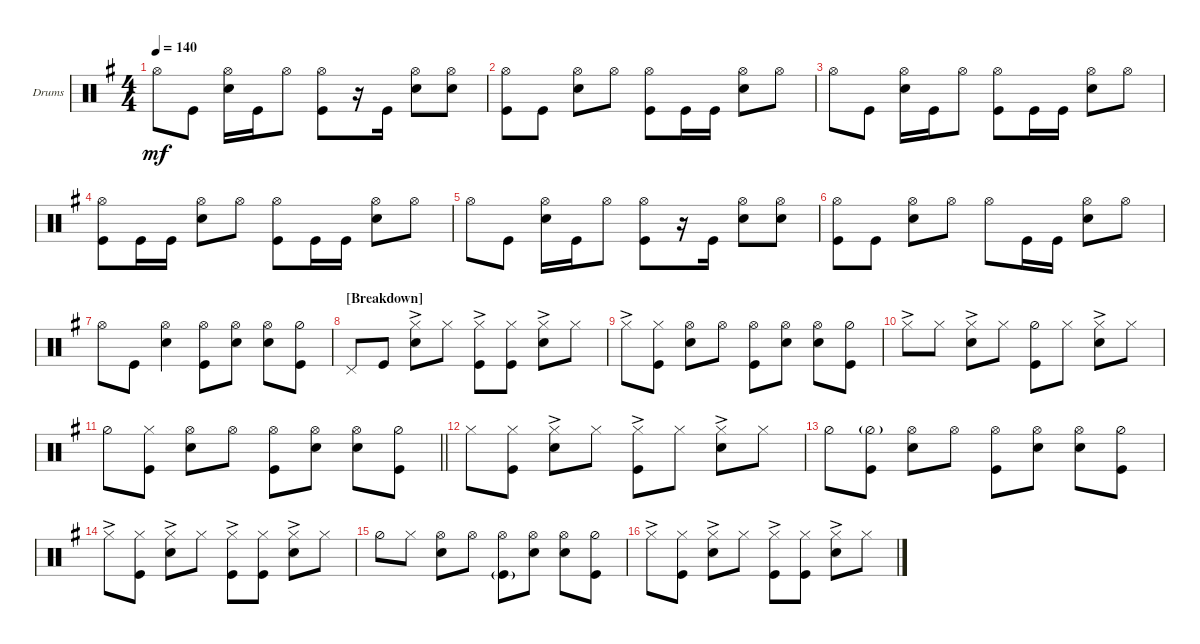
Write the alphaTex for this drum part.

\defaultSystemsLayout 4
\bracketExtendMode groupsimilarinstruments
\firstSystemTrackNameOrientation horizontal
\otherSystemsTrackNameOrientation horizontal
\track ("Drumkit" "Drums") {instrument percussion}
\staff {score}
\articulation defaults
\ts (4 4)
\tempo 140
\clef neutral
\ks g "Hi-Hat (open)".8{dy mf} "Kick (hit)".8
("Hi-Hat (open)" "Snare (hit) 2").16 "Kick (hit)".16 "Hi-Hat (open)".8 ("Hi-Hat (open)" "Kick (hit)").8 r.16 "Kick (hit)".16 ("Hi-Hat (open)" "Snare (hit) 2").8 ("Hi-Hat (open)" "Snare (hit) 2").8 |
("Hi-Hat (open)" "Kick (hit)").8 "Kick (hit)".8 ("Hi-Hat (open)" "Snare (hit) 2").8 "Hi-Hat (open)".8 ("Hi-Hat (open)" "Kick (hit)").8 "Kick (hit)".16 "Kick (hit)".16 ("Hi-Hat (open)" "Snare (hit) 2").8 "Hi-Hat (open)".8 |
"Hi-Hat (open)".8 "Kick (hit)".8 ("Hi-Hat (open)" "Snare (hit) 2").16 "Kick (hit)".16 "Hi-Hat (open)".8 ("Hi-Hat (open)" "Kick (hit)").8 "Kick (hit)".16 "Kick (hit)".16 ("Hi-Hat (open)" "Snare (hit) 2").8 "Hi-Hat (open)".8 |
("Hi-Hat (open)" "Kick (hit)").8 "Kick (hit)".16 "Kick (hit)".16 ("Hi-Hat (open)" "Snare (hit) 2").8 "Hi-Hat (open)".8 ("Hi-Hat (open)" "Kick (hit)").8 "Kick (hit)".16 "Kick (hit)".16 ("Hi-Hat (open)" "Snare (hit) 2").8 "Hi-Hat (open)".8 |
"Hi-Hat (open)".8 "Kick (hit)".8 ("Hi-Hat (open)" "Snare (hit) 2").16 "Kick (hit)".16 "Hi-Hat (open)".8 ("Hi-Hat (open)" "Kick (hit)").8 r.16 "Kick (hit)".16 ("Hi-Hat (open)" "Snare (hit) 2").8 ("Hi-Hat (open)" "Snare (hit) 2").8 |
("Hi-Hat (open)" "Kick (hit)").8 "Kick (hit)".8 ("Hi-Hat (open)" "Snare (hit) 2").8 "Hi-Hat (open)".8 "Hi-Hat (open)".8 "Kick (hit)".16 "Kick (hit)".16 ("Hi-Hat (open)" "Snare (hit) 2").8 "Hi-Hat (open)".8 |
"Hi-Hat (open)".8 "Kick (hit)".8 ("Hi-Hat (open)" "Snare (hit) 2").4 ("Hi-Hat (open)" "Kick (hit)").8 ("Hi-Hat (open)" "Snare (hit) 2").8 ("Hi-Hat (open)" "Snare (hit) 2").8 ("Hi-Hat (half)" "Kick (hit)").8 |
\section ("" "[Breakdown]")
"Pedal Hi-Hat (hit)".8 "Kick (hit)".8 ("Hi-Hat (closed)"{ac} "Snare (hit) 2").8 "Hi-Hat (closed)".8 ("Hi-Hat (closed)"{ac} "Kick (hit)").8 ("Hi-Hat (closed)" "Kick (hit)").8 ("Hi-Hat (closed)"{ac} "Snare (hit) 2").8 "Hi-Hat (closed)".8 |
"Hi-Hat (closed)"{ac}.8 ("Hi-Hat (closed)" "Kick (hit)").8 ("Hi-Hat (open)" "Snare (hit) 2").8 "Hi-Hat (open)".8 ("Hi-Hat (open)" "Kick (hit)").8 ("Hi-Hat (open)" "Snare (hit) 2").8 ("Hi-Hat (open)" "Snare (hit) 2").8 ("Hi-Hat (half)" "Kick (hit)").8 |
"Hi-Hat (closed)"{ac}.8 "Hi-Hat (closed)".8 ("Hi-Hat (closed)"{ac} "Snare (hit) 2").8 "Hi-Hat (closed)".8 ("Hi-Hat (half)" "Kick (hit)").8 "Hi-Hat (closed)".8 ("Hi-Hat (closed)"{ac} "Snare (hit) 2").8 "Hi-Hat (closed)".8 |
\barLineRight lightlight "Hi-Hat (half)".8
("Hi-Hat (closed)" "Kick (hit)").8 ("Hi-Hat (open)" "Snare (hit) 2").8 "Hi-Hat (open)".8 ("Hi-Hat (open)" "Kick (hit)").8 ("Hi-Hat (open)" "Snare (hit) 2").8 ("Hi-Hat (open)" "Snare (hit) 2").8 ("Hi-Hat (half)" "Kick (hit)").8 |
"Hi-Hat (closed)".8 ("Kick (hit)" "Hi-Hat (closed)").8 ("Hi-Hat (closed)"{ac} "Snare (hit) 2").8 "Hi-Hat (closed)".8 ("Hi-Hat (closed)"{ac} "Kick (hit)").8 "Hi-Hat (closed)".8 ("Hi-Hat (closed)"{ac} "Snare (hit) 2").8 "Hi-Hat (closed)".8 |
"Hi-Hat (half)".8 ("Hi-Hat (half)"{g} "Kick (hit)").8 ("Hi-Hat (open)" "Snare (hit) 2").8 "Hi-Hat (open)".8 ("Hi-Hat (open)" "Kick (hit)").8 ("Hi-Hat (open)" "Snare (hit) 2").8 ("Hi-Hat (open)" "Snare (hit) 2").8 ("Hi-Hat (half)" "Kick (hit)").8 |
"Hi-Hat (closed)"{ac}.8 ("Hi-Hat (closed)" "Kick (hit)").8 ("Hi-Hat (closed)"{ac} "Snare (hit) 2").8 "Hi-Hat (closed)".8 ("Hi-Hat (closed)"{ac} "Kick (hit)").8 ("Hi-Hat (closed)" "Kick (hit)").8 ("Hi-Hat (closed)"{ac} "Snare (hit) 2").8 "Hi-Hat (closed)".8 |
"Hi-Hat (half)".8 "Hi-Hat (closed)".8 ("Hi-Hat (open)" "Snare (hit) 2").8 "Hi-Hat (open)".8 ("Hi-Hat (open)" "Kick (hit)"{g}).8 ("Hi-Hat (open)" "Snare (hit) 2").8 ("Hi-Hat (open)" "Snare (hit) 2").8 ("Hi-Hat (half)" "Kick (hit)").8 |
"Hi-Hat (closed)"{ac}.8 ("Kick (hit)" "Hi-Hat (closed)").8 ("Hi-Hat (closed)"{ac} "Snare (hit) 2").8 "Hi-Hat (closed)".8 ("Hi-Hat (closed)"{ac} "Kick (hit)").8 ("Hi-Hat (closed)" "Kick (hit)").8 ("Hi-Hat (closed)"{ac} "Snare (hit) 2").8 "Hi-Hat (closed)".8
